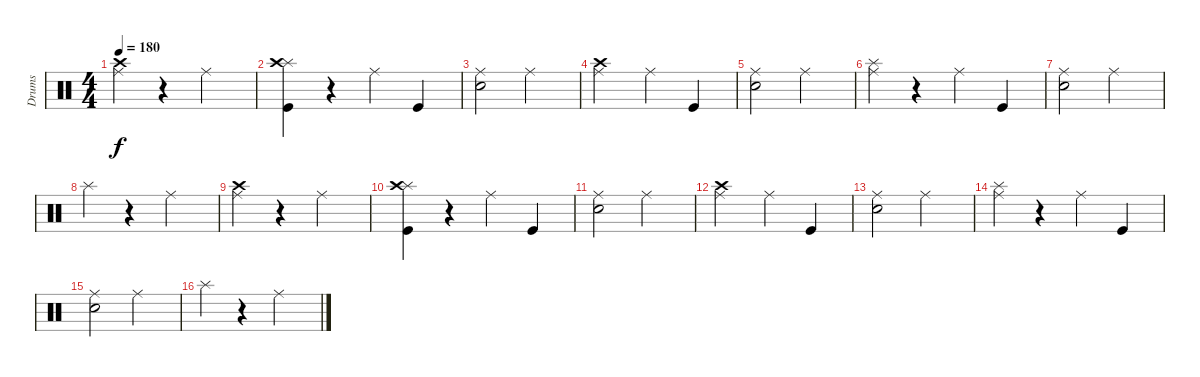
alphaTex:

\track ("Drums" "Drums") {instrument percussion}
\staff {score}
\articulation defaults
\ts (4 4)
\tempo 180
\clef neutral
\ks c
("Crash high (hit)" "Ride (middle)").4{dy f} r.4 "Ride (middle)".2 |
("Splash (hit)" "Crash high (hit)" "Kick (hit)").4 r.4 "Ride (middle)".4 "Kick (hit)".4 |
("Ride (middle)" "Electric Snare (hit)").2 "Ride (middle)".2 |
("Crash high (hit)" "Ride (middle)").2 "Ride (middle)".4 "Kick (hit)".4 |
("Ride (middle)" "Electric Snare (hit)").2 "Ride (middle)".2 |
("Splash (hit)" "Ride (middle)").4 r.4 "Ride (middle)".4 "Kick (hit)".4 |
("Ride (middle)" "Electric Snare (hit)").2 "Ride (middle)".2 |
"Splash (hit)".4 r.4 "Ride (middle)".2 |
("Crash high (hit)" "Ride (middle)").4 r.4 "Ride (middle)".2 |
("Splash (hit)" "Crash high (hit)" "Kick (hit)").4 r.4 "Ride (middle)".4 "Kick (hit)".4 |
("Ride (middle)" "Electric Snare (hit)").2 "Ride (middle)".2 |
("Crash high (hit)" "Ride (middle)").2 "Ride (middle)".4 "Kick (hit)".4 |
("Ride (middle)" "Electric Snare (hit)").2 "Ride (middle)".2 |
("Splash (hit)" "Ride (middle)").4 r.4 "Ride (middle)".4 "Kick (hit)".4 |
("Ride (middle)" "Electric Snare (hit)").2 "Ride (middle)".2 |
"Splash (hit)".4 r.4 "Ride (middle)".2
